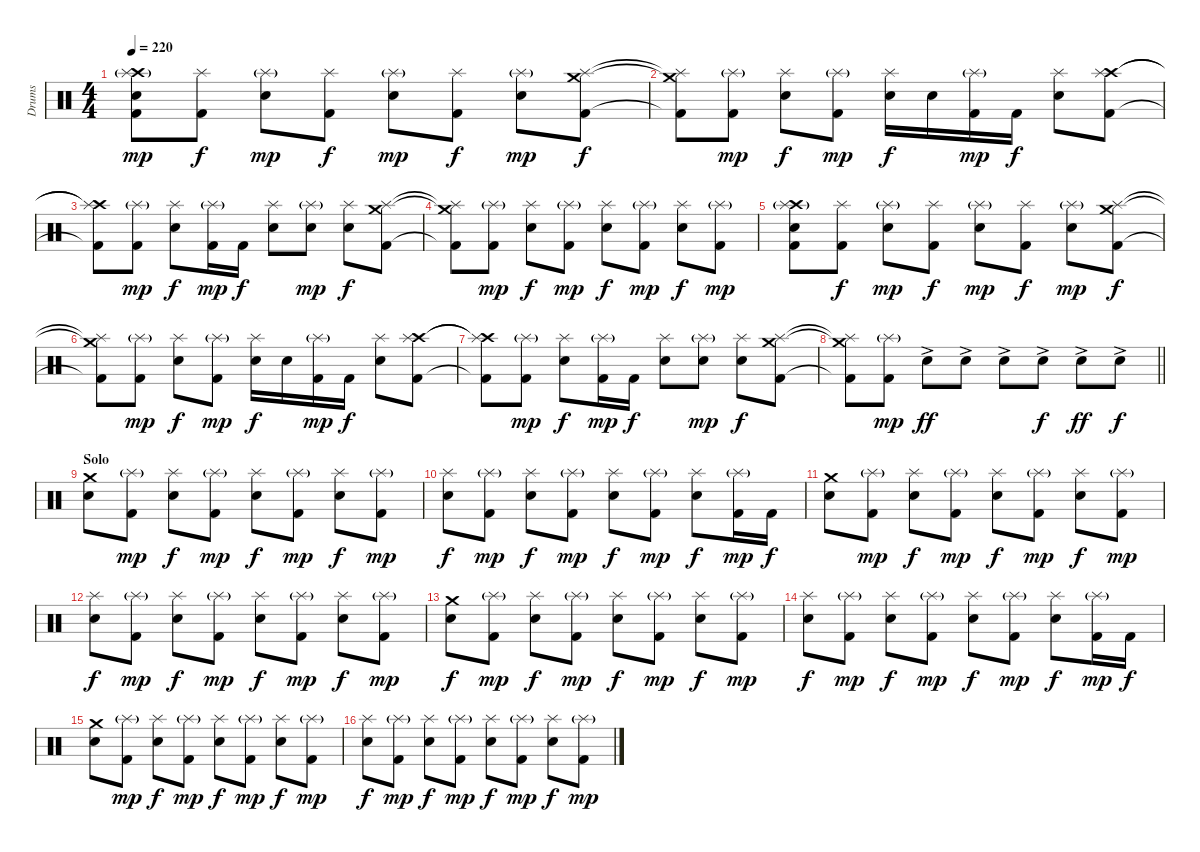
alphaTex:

\track ("Drums" "Drums") {instrument percussion}
\staff {score}
\articulation defaults
\ts (4 4)
\tempo 220
\clef neutral
\ks c
("Crash high (hit)" "Splash (hit)"{g} "Electric Snare (hit)" "Kick (hit) 2").8{dy mp} ("Splash (hit)" "Kick (hit) 2").8{dy f} ("Splash (hit)"{g} "Electric Snare (hit)").8{dy mp} ("Splash (hit)" "Kick (hit) 2").8{dy f} ("Splash (hit)"{g} "Electric Snare (hit)").8{dy mp} ("Splash (hit)" "Kick (hit) 2").8{dy f} ("Splash (hit)"{g} "Electric Snare (hit)").8{dy mp} ("Crash medium (hit)" "Splash (hit)" "Kick (hit) 2").8{dy f} |
("Crash medium (hit)"{t} "Splash (hit)"{t} "Kick (hit) 2"{t}).8 ("Splash (hit)"{g} "Kick (hit) 2").8{dy mp} ("Splash (hit)" "Electric Snare (hit)").8{dy f} ("Splash (hit)"{g} "Kick (hit) 2").8{dy mp} ("Splash (hit)" "Electric Snare (hit)").16{dy f} "Electric Snare (hit)".16 ("Splash (hit)"{g} "Kick (hit) 2").16{dy mp} "Kick (hit) 2".16{dy f} ("Splash (hit)" "Electric Snare (hit)").8 ("Crash high (hit)" "Splash (hit)" "Kick (hit) 2").8 |
("Crash high (hit)"{t} "Splash (hit)"{t} "Kick (hit) 2"{t}).8 ("Splash (hit)"{g} "Kick (hit) 2").8{dy mp} ("Splash (hit)" "Electric Snare (hit)").8{dy f} ("Splash (hit)"{g} "Kick (hit) 2").16{dy mp} "Kick (hit) 2".16{dy f} ("Splash (hit)" "Electric Snare (hit)").8 ("Splash (hit)"{g} "Electric Snare (hit)").8{dy mp} ("Splash (hit)" "Electric Snare (hit)").8{dy f} ("Crash medium (hit)" "Splash (hit)" "Kick (hit) 2").8 |
("Crash medium (hit)"{t} "Splash (hit)"{t} "Kick (hit) 2"{t}).8 ("Splash (hit)"{g} "Kick (hit) 2").8{dy mp} ("Splash (hit)" "Electric Snare (hit)").8{dy f} ("Splash (hit)"{g} "Kick (hit) 2").8{dy mp} ("Splash (hit)" "Electric Snare (hit)").8{dy f} ("Splash (hit)"{g} "Kick (hit) 2").8{dy mp} ("Splash (hit)" "Electric Snare (hit)").8{dy f} ("Splash (hit)"{g} "Kick (hit) 2").8{dy mp} |
("Crash high (hit)" "Splash (hit)"{g} "Electric Snare (hit)" "Kick (hit) 2").8 ("Splash (hit)" "Kick (hit) 2").8{dy f} ("Splash (hit)"{g} "Electric Snare (hit)").8{dy mp} ("Splash (hit)" "Kick (hit) 2").8{dy f} ("Splash (hit)"{g} "Electric Snare (hit)").8{dy mp} ("Splash (hit)" "Kick (hit) 2").8{dy f} ("Splash (hit)"{g} "Electric Snare (hit)").8{dy mp} ("Crash medium (hit)" "Splash (hit)" "Kick (hit) 2").8{dy f} |
("Crash medium (hit)"{t} "Splash (hit)"{t} "Kick (hit) 2"{t}).8 ("Splash (hit)"{g} "Kick (hit) 2").8{dy mp} ("Splash (hit)" "Electric Snare (hit)").8{dy f} ("Splash (hit)"{g} "Kick (hit) 2").8{dy mp} ("Splash (hit)" "Electric Snare (hit)").16{dy f} "Electric Snare (hit)".16 ("Splash (hit)"{g} "Kick (hit) 2").16{dy mp} "Kick (hit) 2".16{dy f} ("Splash (hit)" "Electric Snare (hit)").8 ("Crash high (hit)" "Splash (hit)" "Kick (hit) 2").8 |
("Crash high (hit)"{t} "Splash (hit)"{t} "Kick (hit) 2"{t}).8 ("Splash (hit)"{g} "Kick (hit) 2").8{dy mp} ("Splash (hit)" "Electric Snare (hit)").8{dy f} ("Splash (hit)"{g} "Kick (hit) 2").16{dy mp} "Kick (hit) 2".16{dy f} ("Splash (hit)" "Electric Snare (hit)").8 ("Splash (hit)"{g} "Electric Snare (hit)").8{dy mp} ("Splash (hit)" "Electric Snare (hit)").8{dy f} ("Crash medium (hit)" "Splash (hit)" "Kick (hit) 2").8 |
\barLineRight lightlight
("Crash medium (hit)"{t} "Splash (hit)"{t} "Kick (hit) 2"{t}).8 ("Splash (hit)"{g} "Kick (hit) 2").8{dy mp} "Electric Snare (hit)"{ac}.8{dy ff} "Electric Snare (hit)"{ac}.8 "Electric Snare (hit)"{ac}.8 "Electric Snare (hit)"{ac}.8{dy f} "Electric Snare (hit)"{ac}.8{dy ff} "Electric Snare (hit)"{ac}.8{dy f} |
\section ("" "Solo")
("Crash medium (hit)" "Electric Snare (hit)").8 ("Splash (hit)"{g} "Kick (hit) 2").8{dy mp} ("Splash (hit)" "Electric Snare (hit)").8{dy f} ("Splash (hit)"{g} "Kick (hit) 2").8{dy mp} ("Splash (hit)" "Electric Snare (hit)").8{dy f} ("Splash (hit)"{g} "Kick (hit) 2").8{dy mp} ("Splash (hit)" "Electric Snare (hit)").8{dy f} ("Splash (hit)"{g} "Kick (hit) 2").8{dy mp} |
("Splash (hit)" "Electric Snare (hit)").8{dy f} ("Splash (hit)"{g} "Kick (hit) 2").8{dy mp} ("Splash (hit)" "Electric Snare (hit)").8{dy f} ("Splash (hit)"{g} "Kick (hit) 2").8{dy mp} ("Splash (hit)" "Electric Snare (hit)").8{dy f} ("Splash (hit)"{g} "Kick (hit) 2").8{dy mp} ("Splash (hit)" "Electric Snare (hit)").8{dy f} ("Splash (hit)"{g} "Kick (hit) 2").16{dy mp} "Kick (hit) 2".16{dy f} |
("Crash medium (hit)" "Electric Snare (hit)").8 ("Splash (hit)"{g} "Kick (hit) 2").8{dy mp} ("Splash (hit)" "Electric Snare (hit)").8{dy f} ("Splash (hit)"{g} "Kick (hit) 2").8{dy mp} ("Splash (hit)" "Electric Snare (hit)").8{dy f} ("Splash (hit)"{g} "Kick (hit) 2").8{dy mp} ("Splash (hit)" "Electric Snare (hit)").8{dy f} ("Splash (hit)"{g} "Kick (hit) 2").8{dy mp} |
("Splash (hit)" "Electric Snare (hit)").8{dy f} ("Splash (hit)"{g} "Kick (hit) 2").8{dy mp} ("Splash (hit)" "Electric Snare (hit)").8{dy f} ("Splash (hit)"{g} "Kick (hit) 2").8{dy mp} ("Splash (hit)" "Electric Snare (hit)").8{dy f} ("Splash (hit)"{g} "Kick (hit) 2").8{dy mp} ("Splash (hit)" "Electric Snare (hit)").8{dy f} ("Splash (hit)"{g} "Kick (hit) 2").8{dy mp} |
("Crash medium (hit)" "Electric Snare (hit)").8{dy f} ("Splash (hit)"{g} "Kick (hit) 2").8{dy mp} ("Splash (hit)" "Electric Snare (hit)").8{dy f} ("Splash (hit)"{g} "Kick (hit) 2").8{dy mp} ("Splash (hit)" "Electric Snare (hit)").8{dy f} ("Splash (hit)"{g} "Kick (hit) 2").8{dy mp} ("Splash (hit)" "Electric Snare (hit)").8{dy f} ("Splash (hit)"{g} "Kick (hit) 2").8{dy mp} |
("Splash (hit)" "Electric Snare (hit)").8{dy f} ("Splash (hit)"{g} "Kick (hit) 2").8{dy mp} ("Splash (hit)" "Electric Snare (hit)").8{dy f} ("Splash (hit)"{g} "Kick (hit) 2").8{dy mp} ("Splash (hit)" "Electric Snare (hit)").8{dy f} ("Splash (hit)"{g} "Kick (hit) 2").8{dy mp} ("Splash (hit)" "Electric Snare (hit)").8{dy f} ("Splash (hit)"{g} "Kick (hit) 2").16{dy mp} "Kick (hit) 2".16{dy f} |
("Crash medium (hit)" "Electric Snare (hit)").8 ("Splash (hit)"{g} "Kick (hit) 2").8{dy mp} ("Splash (hit)" "Electric Snare (hit)").8{dy f} ("Splash (hit)"{g} "Kick (hit) 2").8{dy mp} ("Splash (hit)" "Electric Snare (hit)").8{dy f} ("Splash (hit)"{g} "Kick (hit) 2").8{dy mp} ("Splash (hit)" "Electric Snare (hit)").8{dy f} ("Splash (hit)"{g} "Kick (hit) 2").8{dy mp} |
("Splash (hit)" "Electric Snare (hit)").8{dy f} ("Splash (hit)"{g} "Kick (hit) 2").8{dy mp} ("Splash (hit)" "Electric Snare (hit)").8{dy f} ("Splash (hit)"{g} "Kick (hit) 2").8{dy mp} ("Splash (hit)" "Electric Snare (hit)").8{dy f} ("Splash (hit)"{g} "Kick (hit) 2").8{dy mp} ("Splash (hit)" "Electric Snare (hit)").8{dy f} ("Splash (hit)"{g} "Kick (hit) 2").8{dy mp}
